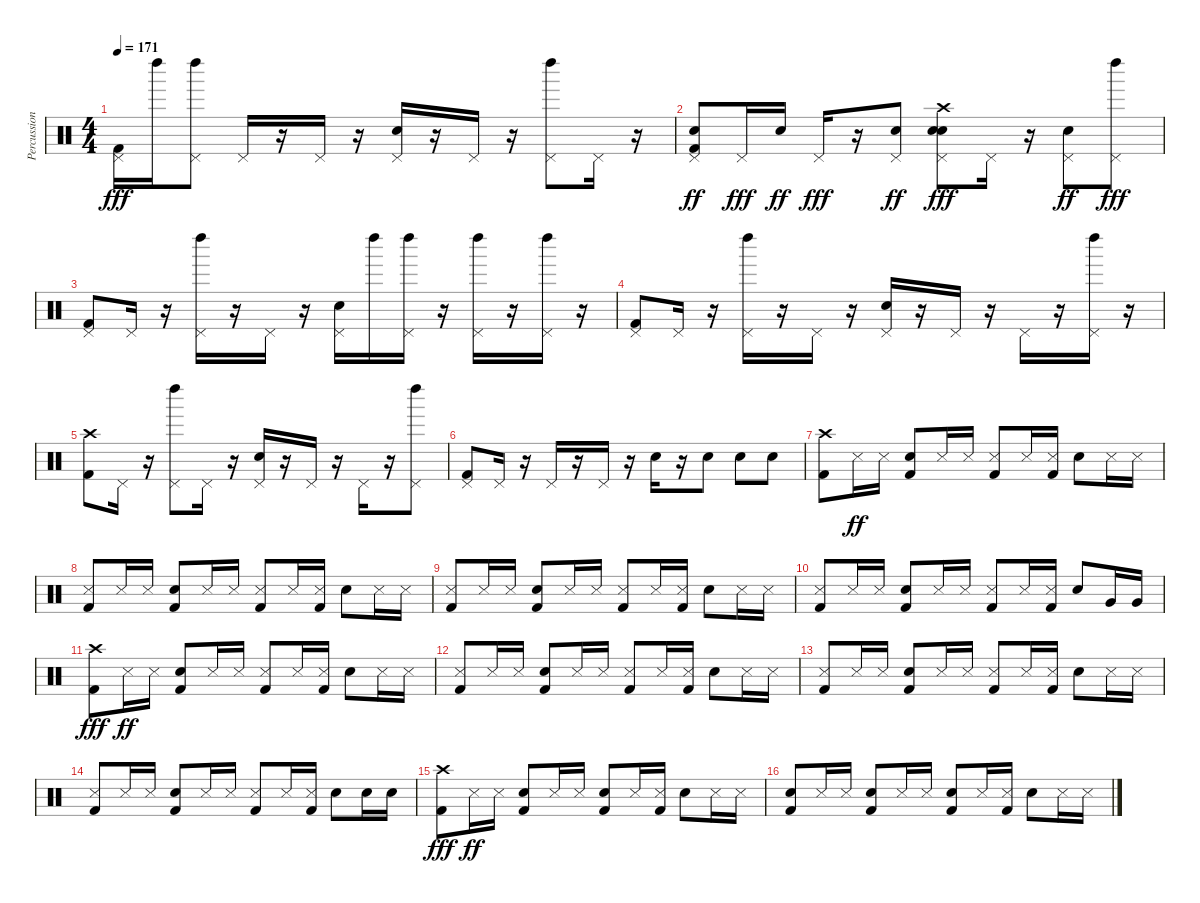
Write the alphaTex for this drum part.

\track ("Percussion" "Percussion") {instrument percussion}
\staff {score}
\articulation defaults
\ts (4 4)
\tempo 171
\clef neutral
\ks c
("Kick (hit) 2" "Pedal Hi-Hat (hit)").16{dy fff} "Left Maraca (hit)".16 ("Pedal Hi-Hat (hit)" "Left Maraca (hit)").8 "Pedal Hi-Hat (hit)".16 r.16 "Pedal Hi-Hat (hit)".16 r.16 ("Snare (hit) 2" "Pedal Hi-Hat (hit)").16 r.16 "Pedal Hi-Hat (hit)".16 r.16 ("Pedal Hi-Hat (hit)" "Left Maraca (hit)").8 "Pedal Hi-Hat (hit)".16 r.16 |
("Kick (hit) 2" "Pedal Hi-Hat (hit)" "Electric Snare (hit)").8{dy ff} "Pedal Hi-Hat (hit)".16{dy fff} "Electric Snare (hit)".16{dy ff} "Pedal Hi-Hat (hit)".16{dy fff} r.16 ("Pedal Hi-Hat (hit)" "Electric Snare (hit)").8{dy ff} ("Snare (hit) 2" "Pedal Hi-Hat (hit)" "Electric Snare (hit)" "Crash high (hit)").8{dy fff} "Pedal Hi-Hat (hit)".16 r.16 ("Pedal Hi-Hat (hit)" "Electric Snare (hit)").8{dy ff} ("Pedal Hi-Hat (hit)" "Left Maraca (hit)").8{dy fff} |
("Kick (hit) 2" "Pedal Hi-Hat (hit)").8 "Pedal Hi-Hat (hit)".16 r.16 ("Pedal Hi-Hat (hit)" "Left Maraca (hit)").16 r.16 "Pedal Hi-Hat (hit)".16 r.16 ("Snare (hit) 2" "Pedal Hi-Hat (hit)").16 "Left Maraca (hit)".16 ("Pedal Hi-Hat (hit)" "Left Maraca (hit)").16 r.16 ("Pedal Hi-Hat (hit)" "Left Maraca (hit)").16 r.16 ("Pedal Hi-Hat (hit)" "Left Maraca (hit)").16 r.16 |
("Kick (hit) 2" "Pedal Hi-Hat (hit)").8 "Pedal Hi-Hat (hit)".16 r.16 ("Pedal Hi-Hat (hit)" "Left Maraca (hit)").16 r.16 "Pedal Hi-Hat (hit)".16 r.16 ("Snare (hit) 2" "Pedal Hi-Hat (hit)").16 r.16 "Pedal Hi-Hat (hit)".16 r.16 "Pedal Hi-Hat (hit)".16 r.16 ("Pedal Hi-Hat (hit)" "Left Maraca (hit)").16 r.16 |
("Kick (hit) 2" "Crash high (hit)").8 "Pedal Hi-Hat (hit)".16 r.16 ("Pedal Hi-Hat (hit)" "Left Maraca (hit)").8 "Pedal Hi-Hat (hit)".16 r.16 ("Snare (hit) 2" "Pedal Hi-Hat (hit)").16 r.16 "Pedal Hi-Hat (hit)".16 r.16 "Pedal Hi-Hat (hit)".16 r.16 ("Pedal Hi-Hat (hit)" "Left Maraca (hit)").8 |
("Kick (hit) 2" "Pedal Hi-Hat (hit)").8 "Pedal Hi-Hat (hit)".16 r.16 "Pedal Hi-Hat (hit)".16 r.16 "Pedal Hi-Hat (hit)".16 r.16 "Snare (hit) 2".16 r.16 "Snare (hit) 2".8 "Snare (hit) 2".8 "Snare (hit) 2".8 |
("Kick (hit) 2" "Crash high (hit)").8 "Metronome (hit)".16{dy ff} "Metronome (hit)".16 ("Kick (hit) 2" "Snare (hit) 2").8 "Metronome (hit)".16 "Metronome (hit)".16 ("Kick (hit) 2" "Metronome (hit)").8 "Metronome (hit)".16 ("Kick (hit) 2" "Metronome (hit)").16 "Snare (hit) 2".8 "Metronome (hit)".16 "Metronome (hit)".16 |
("Kick (hit) 2" "Metronome (hit)").8 "Metronome (hit)".16 "Metronome (hit)".16 ("Kick (hit) 2" "Snare (hit) 2").8 "Metronome (hit)".16 "Metronome (hit)".16 ("Kick (hit) 2" "Metronome (hit)").8 "Metronome (hit)".16 ("Kick (hit) 2" "Metronome (hit)").16 "Snare (hit) 2".8 "Metronome (hit)".16 "Metronome (hit)".16 |
("Kick (hit) 2" "Metronome (hit)").8 "Metronome (hit)".16 "Metronome (hit)".16 ("Kick (hit) 2" "Snare (hit) 2").8 "Metronome (hit)".16 "Metronome (hit)".16 ("Kick (hit) 2" "Metronome (hit)").8 "Metronome (hit)".16 ("Kick (hit) 2" "Metronome (hit)").16 "Snare (hit) 2".8 "Metronome (hit)".16 "Metronome (hit)".16 |
("Kick (hit) 2" "Metronome (hit)").8 "Metronome (hit)".16 "Metronome (hit)".16 ("Kick (hit) 2" "Snare (hit) 2").8 "Metronome (hit)".16 "Metronome (hit)".16 ("Kick (hit) 2" "Metronome (hit)").8 "Metronome (hit)".16 ("Kick (hit) 2" "Metronome (hit)").16 "Snare (hit) 2".8 "Very Low Tom (hit)".16 "Very Low Tom (hit)".16 |
("Kick (hit) 2" "Crash high (hit)").8{dy fff} "Metronome (hit)".16{dy ff} "Metronome (hit)".16 ("Kick (hit) 2" "Snare (hit) 2").8 "Metronome (hit)".16 "Metronome (hit)".16 ("Kick (hit) 2" "Metronome (hit)").8 "Metronome (hit)".16 ("Kick (hit) 2" "Metronome (hit)").16 "Snare (hit) 2".8 "Metronome (hit)".16 "Metronome (hit)".16 |
("Kick (hit) 2" "Metronome (hit)").8 "Metronome (hit)".16 "Metronome (hit)".16 ("Kick (hit) 2" "Snare (hit) 2").8 "Metronome (hit)".16 "Metronome (hit)".16 ("Kick (hit) 2" "Metronome (hit)").8 "Metronome (hit)".16 ("Kick (hit) 2" "Metronome (hit)").16 "Snare (hit) 2".8 "Metronome (hit)".16 "Metronome (hit)".16 |
("Kick (hit) 2" "Metronome (hit)").8 "Metronome (hit)".16 "Metronome (hit)".16 ("Kick (hit) 2" "Snare (hit) 2").8 "Metronome (hit)".16 "Metronome (hit)".16 ("Kick (hit) 2" "Metronome (hit)").8 "Metronome (hit)".16 ("Kick (hit) 2" "Metronome (hit)").16 "Snare (hit) 2".8 "Metronome (hit)".16 "Metronome (hit)".16 |
("Kick (hit) 2" "Metronome (hit)").8 "Metronome (hit)".16 "Metronome (hit)".16 ("Kick (hit) 2" "Snare (hit) 2").8 "Metronome (hit)".16 "Metronome (hit)".16 ("Kick (hit) 2" "Metronome (hit)").8 "Metronome (hit)".16 ("Kick (hit) 2" "Metronome (hit)").16 "Snare (hit) 2".8 "Snare (hit) 2".16 "Snare (hit) 2".16 |
("Kick (hit) 2" "Crash high (hit)").8{dy fff} "Metronome (hit)".16{dy ff} "Metronome (hit)".16 ("Kick (hit) 2" "Snare (hit) 2").8 "Metronome (hit)".16 "Metronome (hit)".16 ("Kick (hit) 2" "Snare (hit) 2").8 "Metronome (hit)".16 ("Kick (hit) 2" "Metronome (hit)").16 "Snare (hit) 2".8 "Metronome (hit)".16 "Metronome (hit)".16 |
("Kick (hit) 2" "Snare (hit) 2").8 "Metronome (hit)".16 "Metronome (hit)".16 ("Kick (hit) 2" "Snare (hit) 2").8 "Metronome (hit)".16 "Metronome (hit)".16 ("Kick (hit) 2" "Snare (hit) 2").8 "Metronome (hit)".16 ("Kick (hit) 2" "Metronome (hit)").16 "Snare (hit) 2".8 "Metronome (hit)".16 "Metronome (hit)".16
